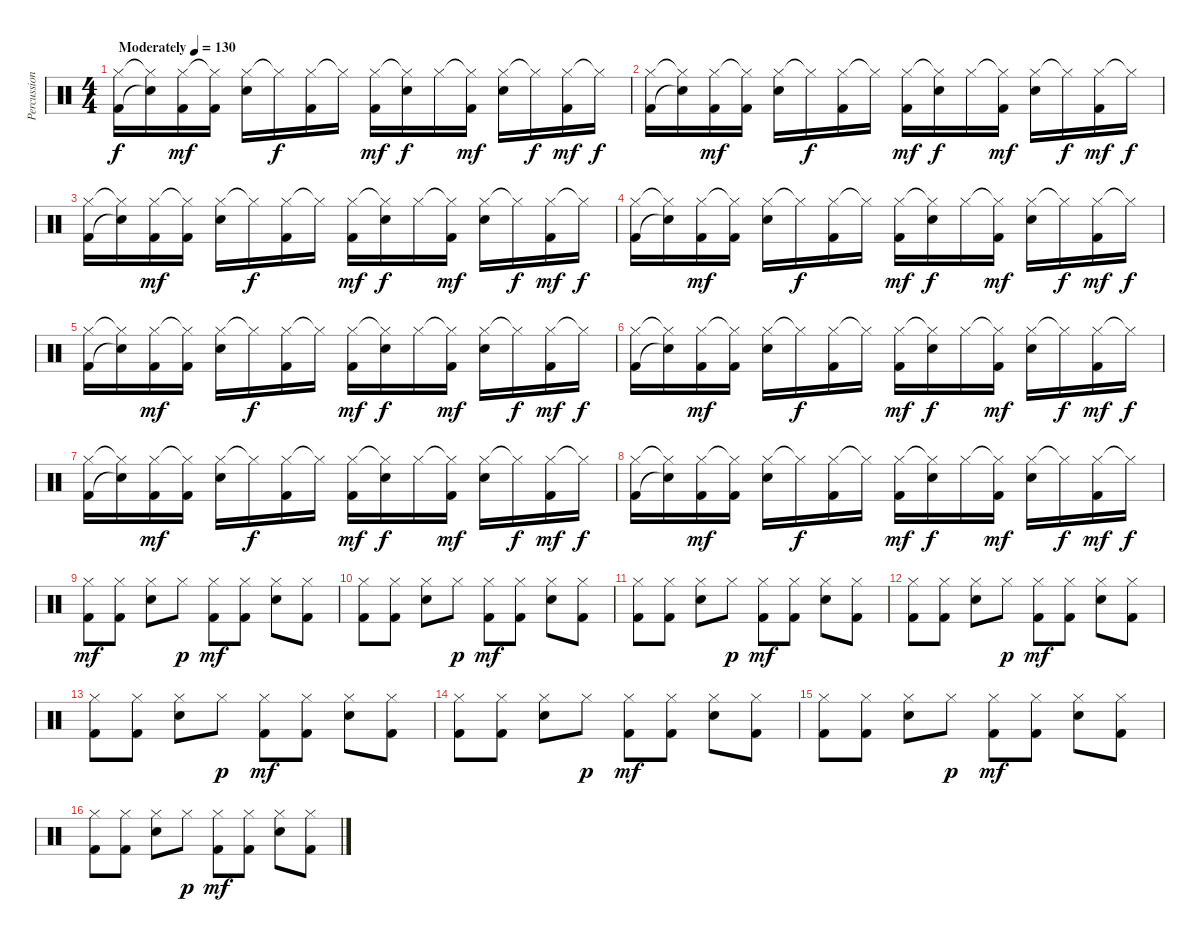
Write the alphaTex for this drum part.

\track ("Percussion" "Percussion") {instrument percussion}
\staff {score}
\articulation defaults
\ts (4 4)
\tempo (130 "Moderately")
\clef neutral
\ks c
("Hi-Hat (closed)" "Kick (hit) 2").16{dy f} ("Hi-Hat (closed)"{t} "Snare (hit)"{t}).16 ("Hi-Hat (closed)" "Kick (hit) 2").16{dy mf} ("Hi-Hat (closed)"{t} "Kick (hit) 2").16 ("Hi-Hat (closed)" "Snare (hit) 2").16 "Hi-Hat (closed)"{t}.16{dy f} ("Hi-Hat (closed)" "Kick (hit) 2").16 "Hi-Hat (closed)"{t}.16 ("Hi-Hat (closed)" "Kick (hit) 2").16{dy mf} ("Hi-Hat (closed)"{t} "Snare (hit) 2").16{dy f} "Hi-Hat (closed)".16 ("Hi-Hat (closed)"{t} "Kick (hit) 2").16{dy mf} ("Hi-Hat (closed)" "Snare (hit) 2").16 "Hi-Hat (closed)"{t}.16{dy f} ("Hi-Hat (closed)" "Kick (hit) 2").16{dy mf} "Hi-Hat (closed)"{t}.16{dy f} |
("Hi-Hat (closed)" "Kick (hit) 2").16 ("Hi-Hat (closed)"{t} "Snare (hit)"{t}).16 ("Hi-Hat (closed)" "Kick (hit) 2").16{dy mf} ("Hi-Hat (closed)"{t} "Kick (hit) 2").16 ("Hi-Hat (closed)" "Snare (hit) 2").16 "Hi-Hat (closed)"{t}.16{dy f} ("Hi-Hat (closed)" "Kick (hit) 2").16 "Hi-Hat (closed)"{t}.16 ("Hi-Hat (closed)" "Kick (hit) 2").16{dy mf} ("Hi-Hat (closed)"{t} "Snare (hit) 2").16{dy f} "Hi-Hat (closed)".16 ("Hi-Hat (closed)"{t} "Kick (hit) 2").16{dy mf} ("Hi-Hat (closed)" "Snare (hit) 2").16 "Hi-Hat (closed)"{t}.16{dy f} ("Hi-Hat (closed)" "Kick (hit) 2").16{dy mf} "Hi-Hat (closed)"{t}.16{dy f} |
("Hi-Hat (closed)" "Kick (hit) 2").16 ("Hi-Hat (closed)"{t} "Snare (hit)"{t}).16 ("Hi-Hat (closed)" "Kick (hit) 2").16{dy mf} ("Hi-Hat (closed)"{t} "Kick (hit) 2").16 ("Hi-Hat (closed)" "Snare (hit) 2").16 "Hi-Hat (closed)"{t}.16{dy f} ("Hi-Hat (closed)" "Kick (hit) 2").16 "Hi-Hat (closed)"{t}.16 ("Hi-Hat (closed)" "Kick (hit) 2").16{dy mf} ("Hi-Hat (closed)"{t} "Snare (hit) 2").16{dy f} "Hi-Hat (closed)".16 ("Hi-Hat (closed)"{t} "Kick (hit) 2").16{dy mf} ("Hi-Hat (closed)" "Snare (hit) 2").16 "Hi-Hat (closed)"{t}.16{dy f} ("Hi-Hat (closed)" "Kick (hit) 2").16{dy mf} "Hi-Hat (closed)"{t}.16{dy f} |
("Hi-Hat (closed)" "Kick (hit) 2").16 ("Hi-Hat (closed)"{t} "Snare (hit)"{t}).16 ("Hi-Hat (closed)" "Kick (hit) 2").16{dy mf} ("Hi-Hat (closed)"{t} "Kick (hit) 2").16 ("Hi-Hat (closed)" "Snare (hit) 2").16 "Hi-Hat (closed)"{t}.16{dy f} ("Hi-Hat (closed)" "Kick (hit) 2").16 "Hi-Hat (closed)"{t}.16 ("Hi-Hat (closed)" "Kick (hit) 2").16{dy mf} ("Hi-Hat (closed)"{t} "Snare (hit) 2").16{dy f} "Hi-Hat (closed)".16 ("Hi-Hat (closed)"{t} "Kick (hit) 2").16{dy mf} ("Hi-Hat (closed)" "Snare (hit) 2").16 "Hi-Hat (closed)"{t}.16{dy f} ("Hi-Hat (closed)" "Kick (hit) 2").16{dy mf} "Hi-Hat (closed)"{t}.16{dy f} |
("Hi-Hat (closed)" "Kick (hit) 2").16 ("Hi-Hat (closed)"{t} "Snare (hit)"{t}).16 ("Hi-Hat (closed)" "Kick (hit) 2").16{dy mf} ("Hi-Hat (closed)"{t} "Kick (hit) 2").16 ("Hi-Hat (closed)" "Snare (hit) 2").16 "Hi-Hat (closed)"{t}.16{dy f} ("Hi-Hat (closed)" "Kick (hit) 2").16 "Hi-Hat (closed)"{t}.16 ("Hi-Hat (closed)" "Kick (hit) 2").16{dy mf} ("Hi-Hat (closed)"{t} "Snare (hit) 2").16{dy f} "Hi-Hat (closed)".16 ("Hi-Hat (closed)"{t} "Kick (hit) 2").16{dy mf} ("Hi-Hat (closed)" "Snare (hit) 2").16 "Hi-Hat (closed)"{t}.16{dy f} ("Hi-Hat (closed)" "Kick (hit) 2").16{dy mf} "Hi-Hat (closed)"{t}.16{dy f} |
("Hi-Hat (closed)" "Kick (hit) 2").16 ("Hi-Hat (closed)"{t} "Snare (hit)"{t}).16 ("Hi-Hat (closed)" "Kick (hit) 2").16{dy mf} ("Hi-Hat (closed)"{t} "Kick (hit) 2").16 ("Hi-Hat (closed)" "Snare (hit) 2").16 "Hi-Hat (closed)"{t}.16{dy f} ("Hi-Hat (closed)" "Kick (hit) 2").16 "Hi-Hat (closed)"{t}.16 ("Hi-Hat (closed)" "Kick (hit) 2").16{dy mf} ("Hi-Hat (closed)"{t} "Snare (hit) 2").16{dy f} "Hi-Hat (closed)".16 ("Hi-Hat (closed)"{t} "Kick (hit) 2").16{dy mf} ("Hi-Hat (closed)" "Snare (hit) 2").16 "Hi-Hat (closed)"{t}.16{dy f} ("Hi-Hat (closed)" "Kick (hit) 2").16{dy mf} "Hi-Hat (closed)"{t}.16{dy f} |
("Hi-Hat (closed)" "Kick (hit) 2").16 ("Hi-Hat (closed)"{t} "Snare (hit)"{t}).16 ("Hi-Hat (closed)" "Kick (hit) 2").16{dy mf} ("Hi-Hat (closed)"{t} "Kick (hit) 2").16 ("Hi-Hat (closed)" "Snare (hit) 2").16 "Hi-Hat (closed)"{t}.16{dy f} ("Hi-Hat (closed)" "Kick (hit) 2").16 "Hi-Hat (closed)"{t}.16 ("Hi-Hat (closed)" "Kick (hit) 2").16{dy mf} ("Hi-Hat (closed)"{t} "Snare (hit) 2").16{dy f} "Hi-Hat (closed)".16 ("Hi-Hat (closed)"{t} "Kick (hit) 2").16{dy mf} ("Hi-Hat (closed)" "Snare (hit) 2").16 "Hi-Hat (closed)"{t}.16{dy f} ("Hi-Hat (closed)" "Kick (hit) 2").16{dy mf} "Hi-Hat (closed)"{t}.16{dy f} |
("Hi-Hat (closed)" "Kick (hit) 2").16 ("Hi-Hat (closed)"{t} "Snare (hit)"{t}).16 ("Hi-Hat (closed)" "Kick (hit) 2").16{dy mf} ("Hi-Hat (closed)"{t} "Kick (hit) 2").16 ("Hi-Hat (closed)" "Snare (hit) 2").16 "Hi-Hat (closed)"{t}.16{dy f} ("Hi-Hat (closed)" "Kick (hit) 2").16 "Hi-Hat (closed)"{t}.16 ("Hi-Hat (closed)" "Kick (hit) 2").16{dy mf} ("Hi-Hat (closed)"{t} "Snare (hit) 2").16{dy f} "Hi-Hat (closed)".16 ("Hi-Hat (closed)"{t} "Kick (hit) 2").16{dy mf} ("Hi-Hat (closed)" "Snare (hit) 2").16 "Hi-Hat (closed)"{t}.16{dy f} ("Hi-Hat (closed)" "Kick (hit) 2").16{dy mf} "Hi-Hat (closed)"{t}.16{dy f} |
("Hi-Hat (closed)" "Kick (hit) 2").8{dy mf} ("Hi-Hat (closed)" "Kick (hit) 2").8 ("Hi-Hat (closed)" "Snare (hit) 2").8 "Hi-Hat (closed)".8{dy p} ("Hi-Hat (closed)" "Kick (hit) 2").8{dy mf} ("Hi-Hat (closed)" "Kick (hit) 2").8 ("Hi-Hat (closed)" "Snare (hit) 2").8 ("Hi-Hat (closed)" "Kick (hit) 2").8 |
("Hi-Hat (closed)" "Kick (hit) 2").8 ("Hi-Hat (closed)" "Kick (hit) 2").8 ("Hi-Hat (closed)" "Snare (hit) 2").8 "Hi-Hat (closed)".8{dy p} ("Hi-Hat (closed)" "Kick (hit) 2").8{dy mf} ("Hi-Hat (closed)" "Kick (hit) 2").8 ("Hi-Hat (closed)" "Snare (hit) 2").8 ("Hi-Hat (closed)" "Kick (hit) 2").8 |
("Hi-Hat (closed)" "Kick (hit) 2").8 ("Hi-Hat (closed)" "Kick (hit) 2").8 ("Hi-Hat (closed)" "Snare (hit) 2").8 "Hi-Hat (closed)".8{dy p} ("Hi-Hat (closed)" "Kick (hit) 2").8{dy mf} ("Hi-Hat (closed)" "Kick (hit) 2").8 ("Hi-Hat (closed)" "Snare (hit) 2").8 ("Hi-Hat (closed)" "Kick (hit) 2").8 |
("Hi-Hat (closed)" "Kick (hit) 2").8 ("Hi-Hat (closed)" "Kick (hit) 2").8 ("Hi-Hat (closed)" "Snare (hit) 2").8 "Hi-Hat (closed)".8{dy p} ("Hi-Hat (closed)" "Kick (hit) 2").8{dy mf} ("Hi-Hat (closed)" "Kick (hit) 2").8 ("Hi-Hat (closed)" "Snare (hit) 2").8 ("Hi-Hat (closed)" "Kick (hit) 2").8 |
("Hi-Hat (closed)" "Kick (hit) 2").8 ("Hi-Hat (closed)" "Kick (hit) 2").8 ("Hi-Hat (closed)" "Snare (hit) 2").8 "Hi-Hat (closed)".8{dy p} ("Hi-Hat (closed)" "Kick (hit) 2").8{dy mf} ("Hi-Hat (closed)" "Kick (hit) 2").8 ("Hi-Hat (closed)" "Snare (hit) 2").8 ("Hi-Hat (closed)" "Kick (hit) 2").8 |
("Hi-Hat (closed)" "Kick (hit) 2").8 ("Hi-Hat (closed)" "Kick (hit) 2").8 ("Hi-Hat (closed)" "Snare (hit) 2").8 "Hi-Hat (closed)".8{dy p} ("Hi-Hat (closed)" "Kick (hit) 2").8{dy mf} ("Hi-Hat (closed)" "Kick (hit) 2").8 ("Hi-Hat (closed)" "Snare (hit) 2").8 ("Hi-Hat (closed)" "Kick (hit) 2").8 |
("Hi-Hat (closed)" "Kick (hit) 2").8 ("Hi-Hat (closed)" "Kick (hit) 2").8 ("Hi-Hat (closed)" "Snare (hit) 2").8 "Hi-Hat (closed)".8{dy p} ("Hi-Hat (closed)" "Kick (hit) 2").8{dy mf} ("Hi-Hat (closed)" "Kick (hit) 2").8 ("Hi-Hat (closed)" "Snare (hit) 2").8 ("Hi-Hat (closed)" "Kick (hit) 2").8 |
("Hi-Hat (closed)" "Kick (hit) 2").8 ("Hi-Hat (closed)" "Kick (hit) 2").8 ("Hi-Hat (closed)" "Snare (hit) 2").8 "Hi-Hat (closed)".8{dy p} ("Hi-Hat (closed)" "Kick (hit) 2").8{dy mf} ("Hi-Hat (closed)" "Kick (hit) 2").8 ("Hi-Hat (closed)" "Snare (hit) 2").8 ("Hi-Hat (closed)" "Kick (hit) 2").8
